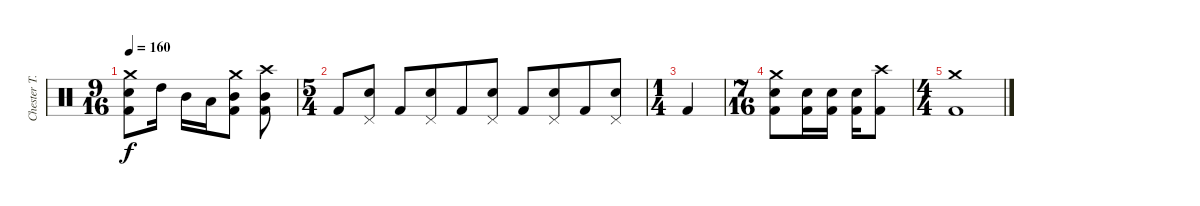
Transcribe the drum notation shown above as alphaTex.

\track ("Chester T." "Chester T.") {instrument percussion}
\staff {score}
\articulation defaults
\ts (9 16)
\tempo 160
\clef neutral
\ks c
("Crash medium (hit)" "Electric Snare (hit)" "Kick (hit) 2").8{dy f} "High Tom (hit)".16 "Mid Tom (hit)".16 "Low Tom (hit)".16 ("Crash medium (hit)" "Mid Tom (hit)" "Kick (hit) 2").8 ("Crash high (hit)" "Mid Tom (hit)" "Kick (hit) 2").8 |
\ts (5 4)
"Kick (hit) 2".8{beam merge} ("Pedal Hi-Hat (hit)" "Electric Snare (hit)").8 "Kick (hit) 2".8 ("Pedal Hi-Hat (hit)" "Electric Snare (hit)").8{beam merge} "Kick (hit) 2".8 ("Pedal Hi-Hat (hit)" "Electric Snare (hit)").8 "Kick (hit) 2".8 ("Pedal Hi-Hat (hit)" "Electric Snare (hit)").8{beam merge} "Kick (hit) 2".8{beam merge} ("Pedal Hi-Hat (hit)" "Electric Snare (hit)").8 |
\ts (1 4)
"Kick (hit) 2".4 |
\ts (7 16)
("Crash medium (hit)" "Electric Snare (hit)" "Kick (hit) 2").8 ("Electric Snare (hit)" "Kick (hit) 2").16 ("Electric Snare (hit)" "Kick (hit) 2").16 ("Electric Snare (hit)" "Kick (hit) 2").16 ("Crash high (hit)" "Kick (hit) 2").8 |
\ts (4 4)
("Crash medium (hit)" "Kick (hit) 2").1
